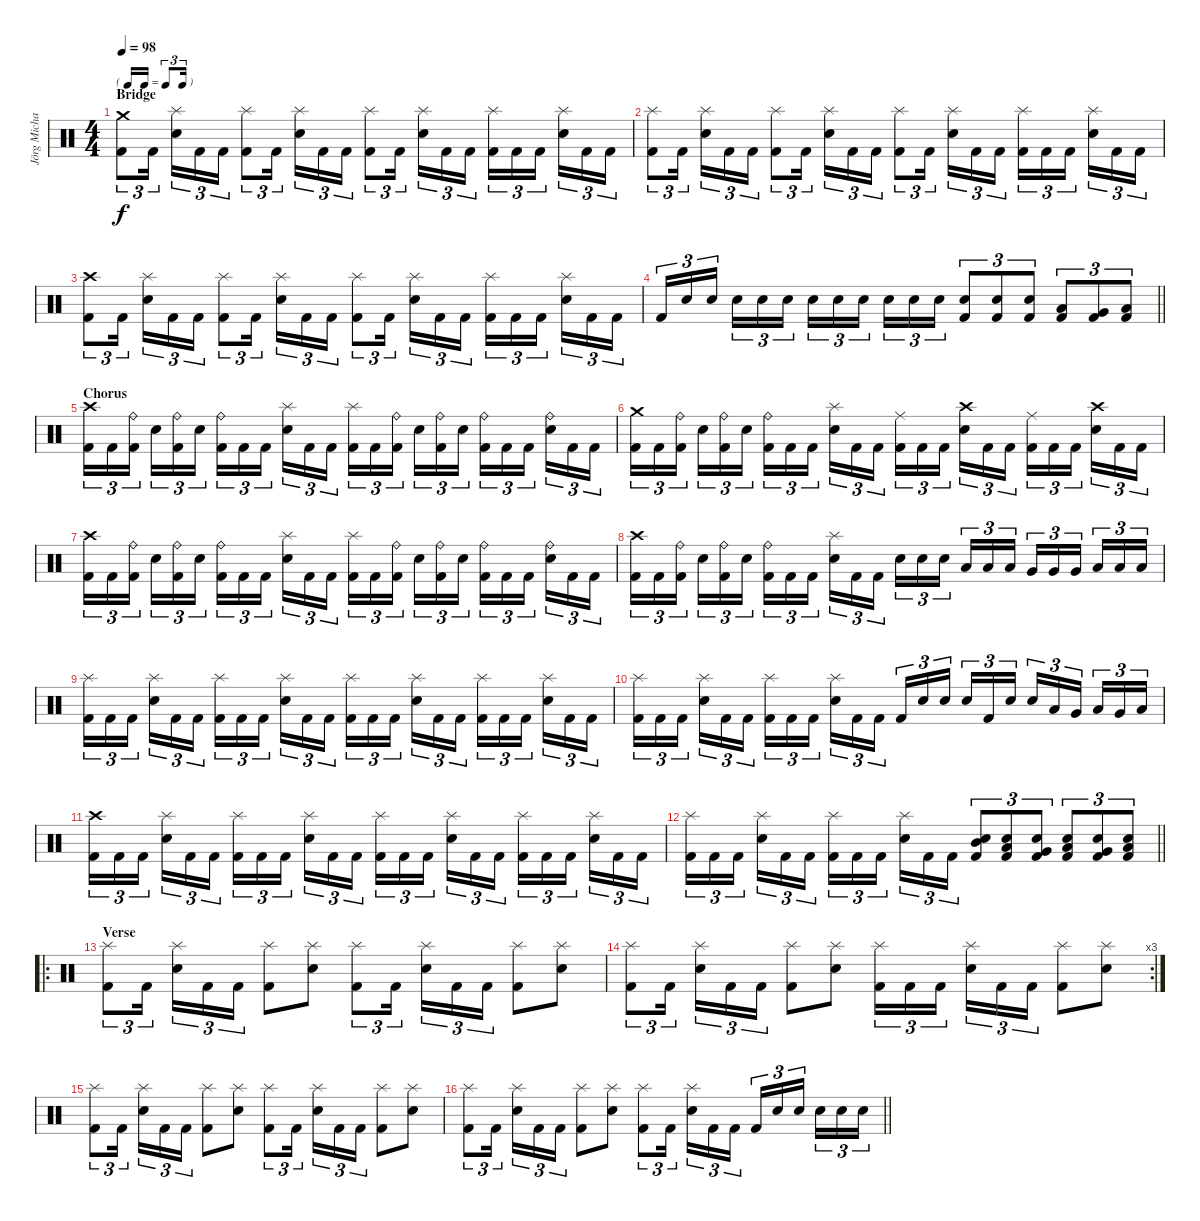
\track ("Jörg Michael" "Jörg Micha") {instrument percussion}
\staff {score}
\articulation defaults
\ts (4 4)
\tf triplet16th
\section ("" "Bridge")
\tempo 98
\clef neutral
\ks c
("Crash medium (hit)" "Kick (hit) 2").8{tu (3 2) dy f} "Kick (hit) 2".16{tu (3 2) beam splitsecondary} ("Splash (hit)" "Snare (hit) 2").16{tu (3 2)} "Kick (hit) 2".16{tu (3 2)} "Kick (hit) 2".16{tu (3 2)} ("Splash (hit)" "Kick (hit) 2").8{tu (3 2)} "Kick (hit) 2".16{tu (3 2) beam splitsecondary} ("Splash (hit)" "Snare (hit) 2").16{tu (3 2)} "Kick (hit) 2".16{tu (3 2)} "Kick (hit) 2".16{tu (3 2)} ("Splash (hit)" "Kick (hit) 2").8{tu (3 2)} "Kick (hit) 2".16{tu (3 2) beam splitsecondary} ("Splash (hit)" "Snare (hit) 2").16{tu (3 2)} "Kick (hit) 2".16{tu (3 2)} "Kick (hit) 2".16{tu (3 2)} ("Splash (hit)" "Kick (hit) 2").16{tu (3 2)} "Kick (hit) 2".16{tu (3 2)} "Kick (hit) 2".16{tu (3 2) beam splitsecondary} ("Splash (hit)" "Snare (hit) 2").16{tu (3 2)} "Kick (hit) 2".16{tu (3 2)} "Kick (hit) 2".16{tu (3 2)} |
("Splash (hit)" "Kick (hit) 2").8{tu (3 2)} "Kick (hit) 2".16{tu (3 2) beam splitsecondary} ("Splash (hit)" "Snare (hit) 2").16{tu (3 2)} "Kick (hit) 2".16{tu (3 2)} "Kick (hit) 2".16{tu (3 2)} ("Splash (hit)" "Kick (hit) 2").8{tu (3 2)} "Kick (hit) 2".16{tu (3 2) beam splitsecondary} ("Splash (hit)" "Snare (hit) 2").16{tu (3 2)} "Kick (hit) 2".16{tu (3 2)} "Kick (hit) 2".16{tu (3 2)} ("Splash (hit)" "Kick (hit) 2").8{tu (3 2)} "Kick (hit) 2".16{tu (3 2) beam splitsecondary} ("Splash (hit)" "Snare (hit) 2").16{tu (3 2)} "Kick (hit) 2".16{tu (3 2)} "Kick (hit) 2".16{tu (3 2)} ("Splash (hit)" "Kick (hit) 2").16{tu (3 2)} "Kick (hit) 2".16{tu (3 2)} "Kick (hit) 2".16{tu (3 2) beam splitsecondary} ("Splash (hit)" "Snare (hit) 2").16{tu (3 2)} "Kick (hit) 2".16{tu (3 2)} "Kick (hit) 2".16{tu (3 2)} |
("Crash high (hit)" "Kick (hit) 2").8{tu (3 2)} "Kick (hit) 2".16{tu (3 2) beam splitsecondary} ("Splash (hit)" "Snare (hit) 2").16{tu (3 2)} "Kick (hit) 2".16{tu (3 2)} "Kick (hit) 2".16{tu (3 2)} ("Splash (hit)" "Kick (hit) 2").8{tu (3 2)} "Kick (hit) 2".16{tu (3 2) beam splitsecondary} ("Splash (hit)" "Snare (hit) 2").16{tu (3 2)} "Kick (hit) 2".16{tu (3 2)} "Kick (hit) 2".16{tu (3 2)} ("Splash (hit)" "Kick (hit) 2").8{tu (3 2)} "Kick (hit) 2".16{tu (3 2) beam splitsecondary} ("Splash (hit)" "Snare (hit) 2").16{tu (3 2)} "Kick (hit) 2".16{tu (3 2)} "Kick (hit) 2".16{tu (3 2)} ("Splash (hit)" "Kick (hit) 2").16{tu (3 2)} "Kick (hit) 2".16{tu (3 2)} "Kick (hit) 2".16{tu (3 2) beam splitsecondary} ("Splash (hit)" "Snare (hit) 2").16{tu (3 2)} "Kick (hit) 2".16{tu (3 2)} "Kick (hit) 2".16{tu (3 2)} |
\barLineRight lightlight "Kick (hit) 2".16{tu (3 2)} "Snare (hit) 2".16{tu (3 2)} "Snare (hit) 2".16{tu (3 2) beam splitsecondary} "Snare (hit) 2".16{tu (3 2)} "Snare (hit) 2".16{tu (3 2)} "Snare (hit) 2".16{tu (3 2)} "Snare (hit) 2".16{tu (3 2)} "Snare (hit) 2".16{tu (3 2)} "Snare (hit) 2".16{tu (3 2) beam splitsecondary} "Snare (hit) 2".16{tu (3 2)} "Snare (hit) 2".16{tu (3 2)} "Snare (hit) 2".16{tu (3 2)}
("Snare (hit) 2" "Kick (hit) 2").8{tu (3 2)} ("Snare (hit) 2" "Kick (hit) 2").8{tu (3 2)} ("Snare (hit) 2" "Kick (hit) 2").8{tu (3 2)} ("Low Tom (hit)" "Kick (hit) 2").8{tu (3 2)} ("Very Low Tom (hit)" "Kick (hit) 2").8{tu (3 2)} ("Low Floor Tom (hit)" "Kick (hit) 2").8{tu (3 2)} |
\section ("" "Chorus")
("Crash high (hit)" "Kick (hit) 2").16{tu (3 2)} "Kick (hit) 2".16{tu (3 2)} ("Ride (bell)" "Kick (hit) 2").16{tu (3 2) beam splitsecondary} "Snare (hit) 2".16{tu (3 2)} ("Ride (bell)" "Kick (hit) 2").16{tu (3 2)} "Snare (hit) 2".16{tu (3 2)} ("Ride (bell)" "Kick (hit) 2").16{tu (3 2)} "Kick (hit) 2".16{tu (3 2)} "Kick (hit) 2".16{tu (3 2) beam splitsecondary} ("Splash (hit)" "Snare (hit) 2").16{tu (3 2)} "Kick (hit) 2".16{tu (3 2)} "Kick (hit) 2".16{tu (3 2)} ("Splash (hit)" "Kick (hit) 2").16{tu (3 2)} "Kick (hit) 2".16{tu (3 2)} ("Ride (bell)" "Kick (hit) 2").16{tu (3 2) beam splitsecondary} "Snare (hit) 2".16{tu (3 2)} ("Ride (bell)" "Kick (hit) 2").16{tu (3 2)} "Snare (hit) 2".16{tu (3 2)} ("Ride (bell)" "Kick (hit) 2").16{tu (3 2)} "Kick (hit) 2".16{tu (3 2)} "Kick (hit) 2".16{tu (3 2) beam splitsecondary} ("Ride (bell)" "Snare (hit) 2").16{tu (3 2)} "Kick (hit) 2".16{tu (3 2)} "Kick (hit) 2".16{tu (3 2)} |
("Crash medium (hit)" "Kick (hit) 2").16{tu (3 2)} "Kick (hit) 2".16{tu (3 2)} ("Ride (bell)" "Kick (hit) 2").16{tu (3 2) beam splitsecondary} "Snare (hit) 2".16{tu (3 2)} ("Ride (bell)" "Kick (hit) 2").16{tu (3 2)} "Snare (hit) 2".16{tu (3 2)} ("Ride (bell)" "Kick (hit) 2").16{tu (3 2)} "Kick (hit) 2".16{tu (3 2)} "Kick (hit) 2".16{tu (3 2) beam splitsecondary} ("Splash (hit)" "Snare (hit) 2").16{tu (3 2)} "Kick (hit) 2".16{tu (3 2)} "Kick (hit) 2".16{tu (3 2)} ("Ride (middle)" "Kick (hit) 2").16{tu (3 2)} "Kick (hit) 2".16{tu (3 2)} "Kick (hit) 2".16{tu (3 2) beam splitsecondary} ("Crash high (hit)" "Snare (hit) 2").16{tu (3 2)} "Kick (hit) 2".16{tu (3 2)} "Kick (hit) 2".16{tu (3 2)} ("Ride (middle)" "Kick (hit) 2").16{tu (3 2)} "Kick (hit) 2".16{tu (3 2)} "Kick (hit) 2".16{tu (3 2) beam splitsecondary} ("Crash high (hit)" "Snare (hit) 2").16{tu (3 2)} "Kick (hit) 2".16{tu (3 2)} "Kick (hit) 2".16{tu (3 2)} |
("Crash high (hit)" "Kick (hit) 2").16{tu (3 2)} "Kick (hit) 2".16{tu (3 2)} ("Ride (bell)" "Kick (hit) 2").16{tu (3 2) beam splitsecondary} "Snare (hit) 2".16{tu (3 2)} ("Ride (bell)" "Kick (hit) 2").16{tu (3 2)} "Snare (hit) 2".16{tu (3 2)} ("Ride (bell)" "Kick (hit) 2").16{tu (3 2)} "Kick (hit) 2".16{tu (3 2)} "Kick (hit) 2".16{tu (3 2) beam splitsecondary} ("Splash (hit)" "Snare (hit) 2").16{tu (3 2)} "Kick (hit) 2".16{tu (3 2)} "Kick (hit) 2".16{tu (3 2)} ("Splash (hit)" "Kick (hit) 2").16{tu (3 2)} "Kick (hit) 2".16{tu (3 2)} ("Ride (bell)" "Kick (hit) 2").16{tu (3 2) beam splitsecondary} "Snare (hit) 2".16{tu (3 2)} ("Ride (bell)" "Kick (hit) 2").16{tu (3 2)} "Snare (hit) 2".16{tu (3 2)} ("Ride (bell)" "Kick (hit) 2").16{tu (3 2)} "Kick (hit) 2".16{tu (3 2)} "Kick (hit) 2".16{tu (3 2) beam splitsecondary} ("Ride (bell)" "Snare (hit) 2").16{tu (3 2)} "Kick (hit) 2".16{tu (3 2)} "Kick (hit) 2".16{tu (3 2)} |
("Crash high (hit)" "Kick (hit) 2").16{tu (3 2)} "Kick (hit) 2".16{tu (3 2)} ("Ride (bell)" "Kick (hit) 2").16{tu (3 2) beam splitsecondary} "Snare (hit) 2".16{tu (3 2)} ("Ride (bell)" "Kick (hit) 2").16{tu (3 2)} "Snare (hit) 2".16{tu (3 2)} ("Ride (bell)" "Kick (hit) 2").16{tu (3 2)} "Kick (hit) 2".16{tu (3 2)} "Kick (hit) 2".16{tu (3 2) beam splitsecondary} ("Splash (hit)" "Snare (hit) 2").16{tu (3 2)} "Kick (hit) 2".16{tu (3 2)} "Kick (hit) 2".16{tu (3 2)} "Snare (hit) 2".16{tu (3 2)} "Snare (hit) 2".16{tu (3 2)} "Snare (hit) 2".16{tu (3 2) beam splitsecondary} "Low Tom (hit)".16{tu (3 2)} "Low Tom (hit)".16{tu (3 2)} "Low Tom (hit)".16{tu (3 2)} "Very Low Tom (hit)".16{tu (3 2)} "Very Low Tom (hit)".16{tu (3 2)} "Very Low Tom (hit)".16{tu (3 2) beam splitsecondary} "Low Floor Tom (hit)".16{tu (3 2)} "Low Floor Tom (hit)".16{tu (3 2)} "Low Floor Tom (hit)".16{tu (3 2)} |
("Splash (hit)" "Kick (hit) 2").16{tu (3 2)} "Kick (hit) 2".16{tu (3 2)} "Kick (hit) 2".16{tu (3 2) beam splitsecondary} ("Splash (hit)" "Snare (hit) 2").16{tu (3 2)} "Kick (hit) 2".16{tu (3 2)} "Kick (hit) 2".16{tu (3 2)} ("Splash (hit)" "Kick (hit) 2").16{tu (3 2)} "Kick (hit) 2".16{tu (3 2)} "Kick (hit) 2".16{tu (3 2) beam splitsecondary} ("Splash (hit)" "Snare (hit) 2").16{tu (3 2)} "Kick (hit) 2".16{tu (3 2)} "Kick (hit) 2".16{tu (3 2)} ("Splash (hit)" "Kick (hit) 2").16{tu (3 2)} "Kick (hit) 2".16{tu (3 2)} "Kick (hit) 2".16{tu (3 2) beam splitsecondary} ("Splash (hit)" "Snare (hit) 2").16{tu (3 2)} "Kick (hit) 2".16{tu (3 2)} "Kick (hit) 2".16{tu (3 2)} ("Splash (hit)" "Kick (hit) 2").16{tu (3 2)} "Kick (hit) 2".16{tu (3 2)} "Kick (hit) 2".16{tu (3 2) beam splitsecondary} ("Splash (hit)" "Snare (hit) 2").16{tu (3 2)} "Kick (hit) 2".16{tu (3 2)} "Kick (hit) 2".16{tu (3 2)} |
("Splash (hit)" "Kick (hit) 2").16{tu (3 2)} "Kick (hit) 2".16{tu (3 2)} "Kick (hit) 2".16{tu (3 2) beam splitsecondary} ("Splash (hit)" "Snare (hit) 2").16{tu (3 2)} "Kick (hit) 2".16{tu (3 2)} "Kick (hit) 2".16{tu (3 2)} ("Splash (hit)" "Kick (hit) 2").16{tu (3 2)} "Kick (hit) 2".16{tu (3 2)} "Kick (hit) 2".16{tu (3 2) beam splitsecondary} ("Splash (hit)" "Snare (hit) 2").16{tu (3 2)} "Kick (hit) 2".16{tu (3 2)} "Kick (hit) 2".16{tu (3 2)} "Kick (hit) 2".16{tu (3 2)} "Snare (hit) 2".16{tu (3 2)} "Snare (hit) 2".16{tu (3 2) beam splitsecondary} "Snare (hit) 2".16{tu (3 2)} "Kick (hit) 2".16{tu (3 2)} "Snare (hit) 2".16{tu (3 2)} "Snare (hit) 2".16{tu (3 2)} "Low Tom (hit)".16{tu (3 2)} "Very Low Tom (hit)".16{tu (3 2) beam splitsecondary} "Low Tom (hit)".16{tu (3 2)} "Very Low Tom (hit)".16{tu (3 2)} "Low Floor Tom (hit)".16{tu (3 2)} |
("Crash high (hit)" "Kick (hit) 2").16{tu (3 2)} "Kick (hit) 2".16{tu (3 2)} "Kick (hit) 2".16{tu (3 2) beam splitsecondary} ("Splash (hit)" "Snare (hit) 2").16{tu (3 2)} "Kick (hit) 2".16{tu (3 2)} "Kick (hit) 2".16{tu (3 2)} ("Splash (hit)" "Kick (hit) 2").16{tu (3 2)} "Kick (hit) 2".16{tu (3 2)} "Kick (hit) 2".16{tu (3 2) beam splitsecondary} ("Splash (hit)" "Snare (hit) 2").16{tu (3 2)} "Kick (hit) 2".16{tu (3 2)} "Kick (hit) 2".16{tu (3 2)} ("Splash (hit)" "Kick (hit) 2").16{tu (3 2)} "Kick (hit) 2".16{tu (3 2)} "Kick (hit) 2".16{tu (3 2) beam splitsecondary} ("Splash (hit)" "Snare (hit) 2").16{tu (3 2)} "Kick (hit) 2".16{tu (3 2)} "Kick (hit) 2".16{tu (3 2)} ("Splash (hit)" "Kick (hit) 2").16{tu (3 2)} "Kick (hit) 2".16{tu (3 2)} "Kick (hit) 2".16{tu (3 2) beam splitsecondary} ("Splash (hit)" "Snare (hit) 2").16{tu (3 2)} "Kick (hit) 2".16{tu (3 2)} "Kick (hit) 2".16{tu (3 2)} |
\barLineRight lightlight
("Splash (hit)" "Kick (hit) 2").16{tu (3 2)} "Kick (hit) 2".16{tu (3 2)} "Kick (hit) 2".16{tu (3 2) beam splitsecondary} ("Splash (hit)" "Snare (hit) 2").16{tu (3 2)} "Kick (hit) 2".16{tu (3 2)} "Kick (hit) 2".16{tu (3 2)} ("Splash (hit)" "Kick (hit) 2").16{tu (3 2)} "Kick (hit) 2".16{tu (3 2)} "Kick (hit) 2".16{tu (3 2) beam splitsecondary} ("Splash (hit)" "Snare (hit) 2").16{tu (3 2)} "Kick (hit) 2".16{tu (3 2)} "Kick (hit) 2".16{tu (3 2)} ("Snare (hit) 2" "Mid Tom (hit)" "Kick (hit) 2").8{tu (3 2)} ("Snare (hit) 2" "Low Tom (hit)" "Kick (hit) 2").8{tu (3 2)} ("Snare (hit) 2" "Very Low Tom (hit)" "Kick (hit) 2").8{tu (3 2)} ("Snare (hit) 2" "Low Tom (hit)" "Kick (hit) 2").8{tu (3 2)} ("Snare (hit) 2" "Very Low Tom (hit)" "Kick (hit) 2").8{tu (3 2)} ("Snare (hit) 2" "Low Floor Tom (hit)" "Kick (hit) 2").8{tu (3 2)} |
\ro
\section ("" "Verse")
("Splash (hit)" "Kick (hit) 2").8{tu (3 2)} "Kick (hit) 2".16{tu (3 2) beam splitsecondary} ("Splash (hit)" "Snare (hit) 2").16{tu (3 2)} "Kick (hit) 2".16{tu (3 2)} "Kick (hit) 2".16{tu (3 2)} ("Splash (hit)" "Kick (hit) 2").8 ("Splash (hit)" "Snare (hit) 2").8 ("Splash (hit)" "Kick (hit) 2").8{tu (3 2)} "Kick (hit) 2".16{tu (3 2) beam splitsecondary} ("Splash (hit)" "Snare (hit) 2").16{tu (3 2)} "Kick (hit) 2".16{tu (3 2)} "Kick (hit) 2".16{tu (3 2)} ("Splash (hit)" "Kick (hit) 2").8 ("Splash (hit)" "Snare (hit) 2").8 |
\rc 3
("Splash (hit)" "Kick (hit) 2").8{tu (3 2)} "Kick (hit) 2".16{tu (3 2) beam splitsecondary} ("Splash (hit)" "Snare (hit) 2").16{tu (3 2)} "Kick (hit) 2".16{tu (3 2)} "Kick (hit) 2".16{tu (3 2)} ("Splash (hit)" "Kick (hit) 2").8 ("Splash (hit)" "Snare (hit) 2").8 ("Splash (hit)" "Kick (hit) 2").16{tu (3 2)} "Kick (hit) 2".16{tu (3 2)} "Kick (hit) 2".16{tu (3 2) beam splitsecondary} ("Splash (hit)" "Snare (hit) 2").16{tu (3 2)} "Kick (hit) 2".16{tu (3 2)} "Kick (hit) 2".16{tu (3 2)} ("Splash (hit)" "Kick (hit) 2").8 ("Splash (hit)" "Snare (hit) 2").8 |
("Splash (hit)" "Kick (hit) 2").8{tu (3 2)} "Kick (hit) 2".16{tu (3 2) beam splitsecondary} ("Splash (hit)" "Snare (hit) 2").16{tu (3 2)} "Kick (hit) 2".16{tu (3 2)} "Kick (hit) 2".16{tu (3 2)} ("Splash (hit)" "Kick (hit) 2").8 ("Splash (hit)" "Snare (hit) 2").8 ("Splash (hit)" "Kick (hit) 2").8{tu (3 2)} "Kick (hit) 2".16{tu (3 2) beam splitsecondary} ("Splash (hit)" "Snare (hit) 2").16{tu (3 2)} "Kick (hit) 2".16{tu (3 2)} "Kick (hit) 2".16{tu (3 2)} ("Splash (hit)" "Kick (hit) 2").8 ("Splash (hit)" "Snare (hit) 2").8 |
\barLineRight lightlight
("Splash (hit)" "Kick (hit) 2").8{tu (3 2)} "Kick (hit) 2".16{tu (3 2) beam splitsecondary} ("Splash (hit)" "Snare (hit) 2").16{tu (3 2)} "Kick (hit) 2".16{tu (3 2)} "Kick (hit) 2".16{tu (3 2)} ("Splash (hit)" "Kick (hit) 2").8 ("Splash (hit)" "Snare (hit) 2").8 ("Splash (hit)" "Kick (hit) 2").8{tu (3 2)} "Kick (hit) 2".16{tu (3 2) beam splitsecondary} ("Splash (hit)" "Snare (hit) 2").16{tu (3 2)} "Kick (hit) 2".16{tu (3 2)} "Kick (hit) 2".16{tu (3 2)} "Kick (hit) 2".16{tu (3 2)} "Snare (hit) 2".16{tu (3 2)} "Snare (hit) 2".16{tu (3 2) beam splitsecondary} "Snare (hit) 2".16{tu (3 2)} "Snare (hit) 2".16{tu (3 2)} "Snare (hit) 2".16{tu (3 2)}
